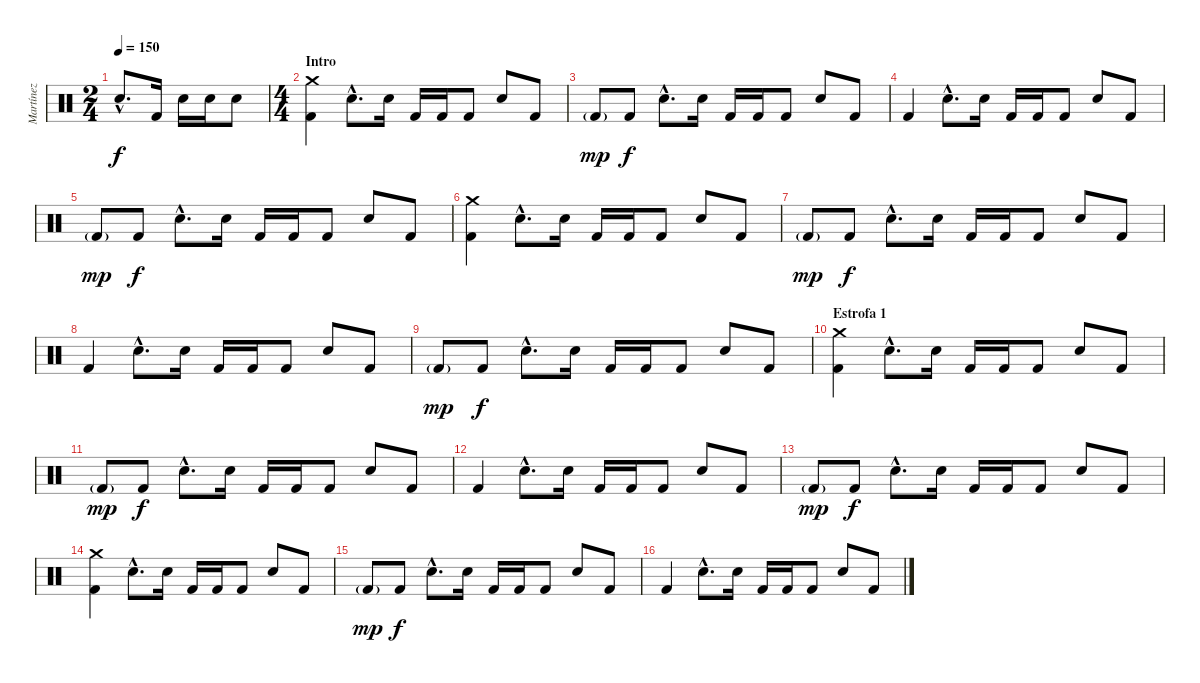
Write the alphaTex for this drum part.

\track ("Martínez" "Martínez") {instrument percussion}
\staff {score}
\articulation defaults
\ts (2 4)
\tempo 150
\clef neutral
\ks c "Electric Snare (hit)"{hac}.8{d dy f} "Kick (hit) 2".16 "Electric Snare (hit)".16 "Electric Snare (hit)".16 "Electric Snare (hit)".8
|
\ts (4 4)
\section ("" "Intro")
("Crash medium (hit)" "Kick (hit) 2").4 "Electric Snare (hit)"{hac}.8{d} "Electric Snare (hit)".16 "Kick (hit) 2".16 "Kick (hit) 2".16 "Kick (hit) 2".8 "Electric Snare (hit)".8 "Kick (hit) 2".8 |
"Kick (hit) 2"{g}.8{dy mp} "Kick (hit) 2".8{dy f} "Electric Snare (hit)"{hac}.8{d} "Electric Snare (hit)".16 "Kick (hit) 2".16 "Kick (hit) 2".16 "Kick (hit) 2".8 "Electric Snare (hit)".8 "Kick (hit) 2".8 |
"Kick (hit) 2".4 "Electric Snare (hit)"{hac}.8{d} "Electric Snare (hit)".16 "Kick (hit) 2".16 "Kick (hit) 2".16 "Kick (hit) 2".8 "Electric Snare (hit)".8 "Kick (hit) 2".8 |
"Kick (hit) 2"{g}.8{dy mp} "Kick (hit) 2".8{dy f} "Electric Snare (hit)"{hac}.8{d} "Electric Snare (hit)".16 "Kick (hit) 2".16 "Kick (hit) 2".16 "Kick (hit) 2".8 "Electric Snare (hit)".8 "Kick (hit) 2".8 |
("Crash medium (hit)" "Kick (hit) 2").4 "Electric Snare (hit)"{hac}.8{d} "Electric Snare (hit)".16 "Kick (hit) 2".16 "Kick (hit) 2".16 "Kick (hit) 2".8 "Electric Snare (hit)".8 "Kick (hit) 2".8 |
"Kick (hit) 2"{g}.8{dy mp} "Kick (hit) 2".8{dy f} "Electric Snare (hit)"{hac}.8{d} "Electric Snare (hit)".16 "Kick (hit) 2".16 "Kick (hit) 2".16 "Kick (hit) 2".8 "Electric Snare (hit)".8 "Kick (hit) 2".8 |
"Kick (hit) 2".4 "Electric Snare (hit)"{hac}.8{d} "Electric Snare (hit)".16 "Kick (hit) 2".16 "Kick (hit) 2".16 "Kick (hit) 2".8 "Electric Snare (hit)".8 "Kick (hit) 2".8 |
"Kick (hit) 2"{g}.8{dy mp} "Kick (hit) 2".8{dy f} "Electric Snare (hit)"{hac}.8{d} "Electric Snare (hit)".16 "Kick (hit) 2".16 "Kick (hit) 2".16 "Kick (hit) 2".8 "Electric Snare (hit)".8 "Kick (hit) 2".8 |
\section ("" "Estrofa 1")
("Crash medium (hit)" "Kick (hit) 2").4 "Electric Snare (hit)"{hac}.8{d} "Electric Snare (hit)".16 "Kick (hit) 2".16 "Kick (hit) 2".16 "Kick (hit) 2".8 "Electric Snare (hit)".8 "Kick (hit) 2".8 |
"Kick (hit) 2"{g}.8{dy mp} "Kick (hit) 2".8{dy f} "Electric Snare (hit)"{hac}.8{d} "Electric Snare (hit)".16 "Kick (hit) 2".16 "Kick (hit) 2".16 "Kick (hit) 2".8 "Electric Snare (hit)".8 "Kick (hit) 2".8 |
"Kick (hit) 2".4 "Electric Snare (hit)"{hac}.8{d} "Electric Snare (hit)".16 "Kick (hit) 2".16 "Kick (hit) 2".16 "Kick (hit) 2".8 "Electric Snare (hit)".8 "Kick (hit) 2".8 |
"Kick (hit) 2"{g}.8{dy mp} "Kick (hit) 2".8{dy f} "Electric Snare (hit)"{hac}.8{d} "Electric Snare (hit)".16 "Kick (hit) 2".16 "Kick (hit) 2".16 "Kick (hit) 2".8 "Electric Snare (hit)".8 "Kick (hit) 2".8 |
("Crash medium (hit)" "Kick (hit) 2").4 "Electric Snare (hit)"{hac}.8{d} "Electric Snare (hit)".16 "Kick (hit) 2".16 "Kick (hit) 2".16 "Kick (hit) 2".8 "Electric Snare (hit)".8 "Kick (hit) 2".8 |
"Kick (hit) 2"{g}.8{dy mp} "Kick (hit) 2".8{dy f} "Electric Snare (hit)"{hac}.8{d} "Electric Snare (hit)".16 "Kick (hit) 2".16 "Kick (hit) 2".16 "Kick (hit) 2".8 "Electric Snare (hit)".8 "Kick (hit) 2".8 |
"Kick (hit) 2".4 "Electric Snare (hit)"{hac}.8{d} "Electric Snare (hit)".16 "Kick (hit) 2".16 "Kick (hit) 2".16 "Kick (hit) 2".8 "Electric Snare (hit)".8 "Kick (hit) 2".8
